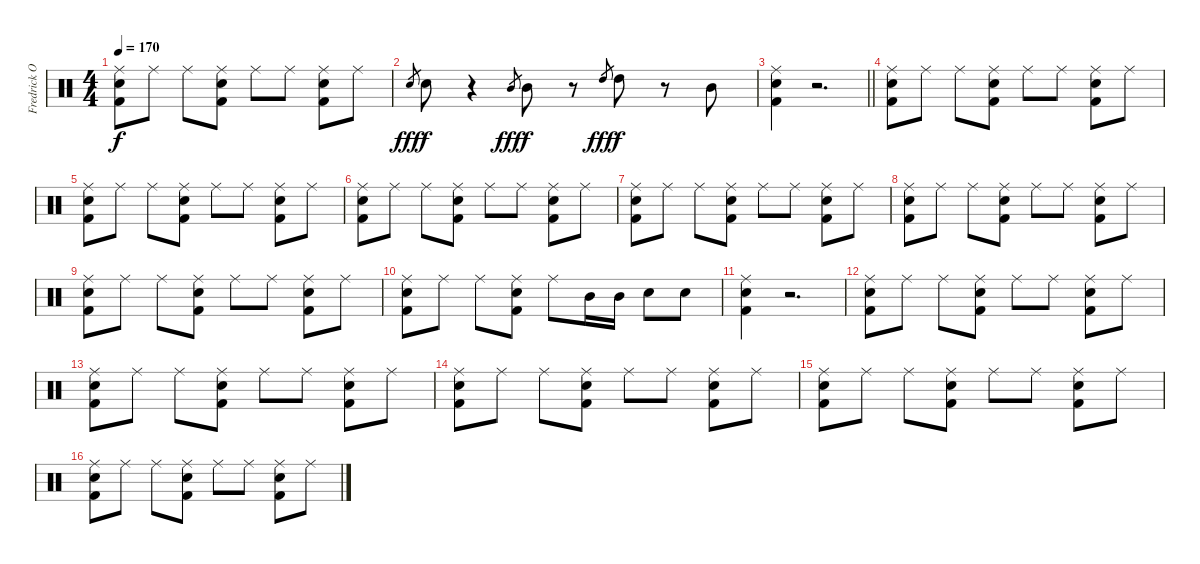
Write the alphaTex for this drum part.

\track ("Fredrick Oscarsson (Drums)" "Fredrick O") {instrument percussion}
\staff {score}
\articulation defaults
\ts (4 4)
\tempo 170
\clef neutral
\ks c
("Ride (middle)" "Snare (hit) 2" "Kick (hit) 2").8{dy f} "Ride (middle)".8 "Ride (middle)".8 ("Ride (middle)" "Snare (hit) 2" "Kick (hit) 2").8 "Ride (middle)".8 "Ride (middle)".8 ("Ride (middle)" "Snare (hit) 2" "Kick (hit) 2").8 "Ride (middle)".8 |
"Snare (hit) 2".8{gr dy fff} "Snare (hit) 2".8{dy f} r.4 "Mid Tom (hit)".8{gr dy fff} "Mid Tom (hit)".8{dy f} r.8 "High Tom (hit)".8{gr dy fff} "High Tom (hit)".8{dy f} r.8 "Mid Tom (hit)".8 |
\barLineRight lightlight
("Ride (middle)" "Snare (hit) 2" "Kick (hit) 2").4 r.2{d} |
("Ride (middle)" "Snare (hit) 2" "Kick (hit) 2").8 "Ride (middle)".8 "Ride (middle)".8 ("Ride (middle)" "Snare (hit) 2" "Kick (hit) 2").8 "Ride (middle)".8 "Ride (middle)".8 ("Ride (middle)" "Snare (hit) 2" "Kick (hit) 2").8 "Ride (middle)".8 |
("Ride (middle)" "Snare (hit) 2" "Kick (hit) 2").8 "Ride (middle)".8 "Ride (middle)".8 ("Ride (middle)" "Snare (hit) 2" "Kick (hit) 2").8 "Ride (middle)".8 "Ride (middle)".8 ("Ride (middle)" "Snare (hit) 2" "Kick (hit) 2").8 "Ride (middle)".8 |
("Ride (middle)" "Snare (hit) 2" "Kick (hit) 2").8 "Ride (middle)".8 "Ride (middle)".8 ("Ride (middle)" "Snare (hit) 2" "Kick (hit) 2").8 "Ride (middle)".8 "Ride (middle)".8 ("Ride (middle)" "Snare (hit) 2" "Kick (hit) 2").8 "Ride (middle)".8 |
("Ride (middle)" "Snare (hit) 2" "Kick (hit) 2").8 "Ride (middle)".8 "Ride (middle)".8 ("Ride (middle)" "Snare (hit) 2" "Kick (hit) 2").8 "Ride (middle)".8 "Ride (middle)".8 ("Ride (middle)" "Snare (hit) 2" "Kick (hit) 2").8 "Ride (middle)".8 |
("Ride (middle)" "Snare (hit) 2" "Kick (hit) 2").8 "Ride (middle)".8 "Ride (middle)".8 ("Ride (middle)" "Snare (hit) 2" "Kick (hit) 2").8 "Ride (middle)".8 "Ride (middle)".8 ("Ride (middle)" "Snare (hit) 2" "Kick (hit) 2").8 "Ride (middle)".8 |
("Ride (middle)" "Snare (hit) 2" "Kick (hit) 2").8 "Ride (middle)".8 "Ride (middle)".8 ("Ride (middle)" "Snare (hit) 2" "Kick (hit) 2").8 "Ride (middle)".8 "Ride (middle)".8 ("Ride (middle)" "Snare (hit) 2" "Kick (hit) 2").8 "Ride (middle)".8 |
("Ride (middle)" "Snare (hit) 2" "Kick (hit) 2").8 "Ride (middle)".8 "Ride (middle)".8 ("Ride (middle)" "Snare (hit) 2" "Kick (hit) 2").8 "Ride (middle)".8 "Mid Tom (hit)".16 "Mid Tom (hit)".16 "Snare (hit) 2".8 "Snare (hit) 2".8 |
("Ride (middle)" "Snare (hit) 2" "Kick (hit) 2").4 r.2{d} |
("Ride (middle)" "Snare (hit) 2" "Kick (hit) 2").8 "Ride (middle)".8 "Ride (middle)".8 ("Ride (middle)" "Snare (hit) 2" "Kick (hit) 2").8 "Ride (middle)".8 "Ride (middle)".8 ("Ride (middle)" "Snare (hit) 2" "Kick (hit) 2").8 "Ride (middle)".8 |
("Ride (middle)" "Snare (hit) 2" "Kick (hit) 2").8 "Ride (middle)".8 "Ride (middle)".8 ("Ride (middle)" "Snare (hit) 2" "Kick (hit) 2").8 "Ride (middle)".8 "Ride (middle)".8 ("Ride (middle)" "Snare (hit) 2" "Kick (hit) 2").8 "Ride (middle)".8 |
("Ride (middle)" "Snare (hit) 2" "Kick (hit) 2").8 "Ride (middle)".8 "Ride (middle)".8 ("Ride (middle)" "Snare (hit) 2" "Kick (hit) 2").8 "Ride (middle)".8 "Ride (middle)".8 ("Ride (middle)" "Snare (hit) 2" "Kick (hit) 2").8 "Ride (middle)".8 |
("Ride (middle)" "Snare (hit) 2" "Kick (hit) 2").8 "Ride (middle)".8 "Ride (middle)".8 ("Ride (middle)" "Snare (hit) 2" "Kick (hit) 2").8 "Ride (middle)".8 "Ride (middle)".8 ("Ride (middle)" "Snare (hit) 2" "Kick (hit) 2").8 "Ride (middle)".8 |
("Ride (middle)" "Snare (hit) 2" "Kick (hit) 2").8 "Ride (middle)".8 "Ride (middle)".8 ("Ride (middle)" "Snare (hit) 2" "Kick (hit) 2").8 "Ride (middle)".8 "Ride (middle)".8 ("Ride (middle)" "Snare (hit) 2" "Kick (hit) 2").8 "Ride (middle)".8
